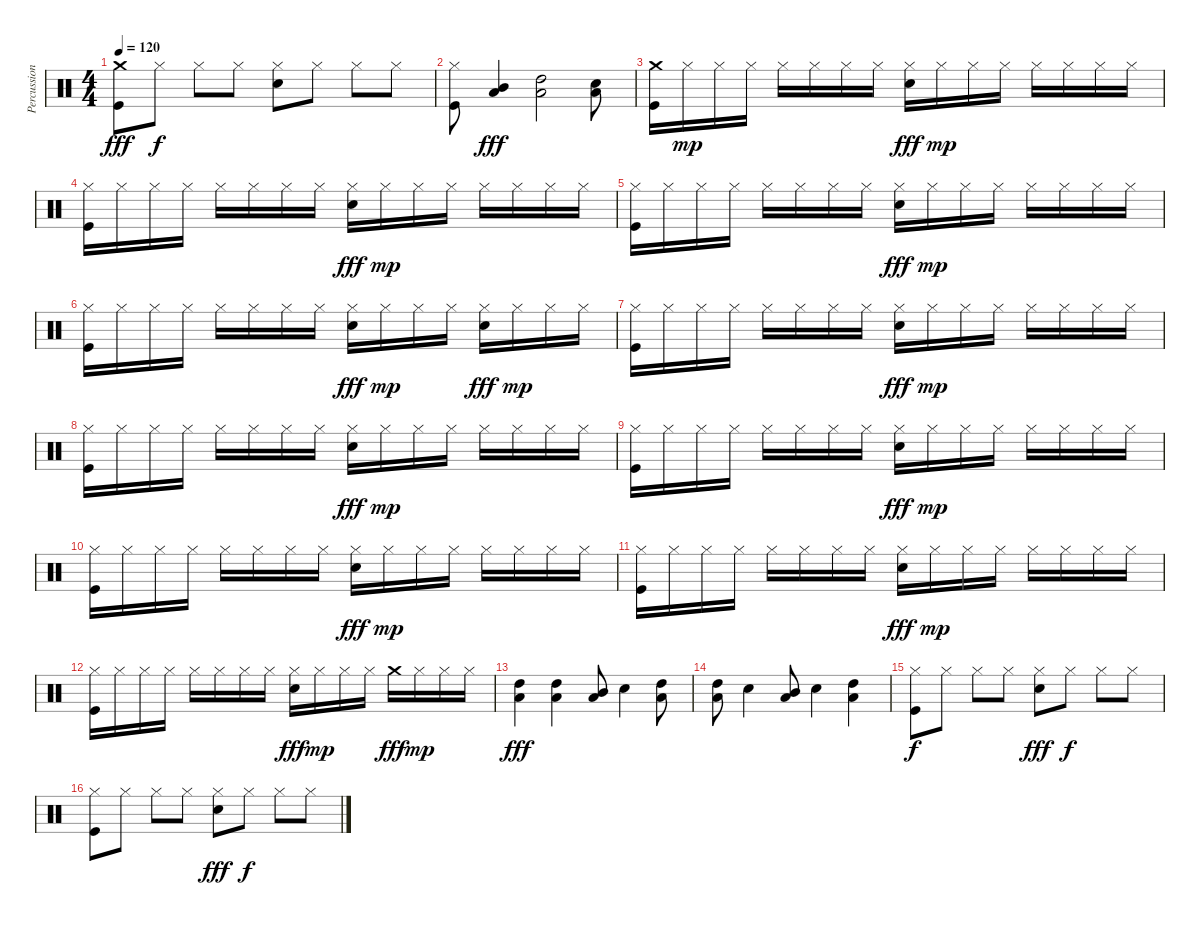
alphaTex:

\track ("Percussions" "Percussion") {instrument percussion}
\staff {score}
\articulation defaults
\ts (4 4)
\tempo 120
\clef neutral
\ks c
("Crash medium (hit)" "Kick (hit)").8{dy fff} "Hi-Hat (closed)".8{dy f} "Hi-Hat (closed)".8 "Hi-Hat (closed)".8 ("Hi-Hat (closed)" "Snare (hit) 2").8 "Hi-Hat (closed)".8 "Hi-Hat (closed)".8 "Hi-Hat (closed)".8 |
("Hi-Hat (closed)" "Kick (hit)").8 ("Mid Tom (hit)" "Low Tom (hit)").4{dy fff} ("High Tom (hit)" "Low Tom (hit)").2 ("Snare (hit) 2" "Low Tom (hit)").8 |
("Crash medium (hit)" "Kick (hit)").16 "Hi-Hat (closed)".16{dy mp} "Hi-Hat (closed)".16 "Hi-Hat (closed)".16 "Hi-Hat (closed)".16 "Hi-Hat (closed)".16 "Hi-Hat (closed)".16 "Hi-Hat (closed)".16 ("Hi-Hat (closed)" "Snare (hit) 2").16{dy fff} "Hi-Hat (closed)".16{dy mp} "Hi-Hat (closed)".16 "Hi-Hat (closed)".16 "Hi-Hat (closed)".16 "Hi-Hat (closed)".16 "Hi-Hat (closed)".16 "Hi-Hat (closed)".16 |
("Hi-Hat (closed)" "Kick (hit)").16 "Hi-Hat (closed)".16 "Hi-Hat (closed)".16 "Hi-Hat (closed)".16 "Hi-Hat (closed)".16 "Hi-Hat (closed)".16 "Hi-Hat (closed)".16 "Hi-Hat (closed)".16 ("Hi-Hat (closed)" "Snare (hit) 2").16{dy fff} "Hi-Hat (closed)".16{dy mp} "Hi-Hat (closed)".16 "Hi-Hat (closed)".16 "Hi-Hat (closed)".16 "Hi-Hat (closed)".16 "Hi-Hat (closed)".16 "Hi-Hat (closed)".16 |
("Hi-Hat (closed)" "Kick (hit)").16 "Hi-Hat (closed)".16 "Hi-Hat (closed)".16 "Hi-Hat (closed)".16 "Hi-Hat (closed)".16 "Hi-Hat (closed)".16 "Hi-Hat (closed)".16 "Hi-Hat (closed)".16 ("Hi-Hat (closed)" "Snare (hit) 2").16{dy fff} "Hi-Hat (closed)".16{dy mp} "Hi-Hat (closed)".16 "Hi-Hat (closed)".16 "Hi-Hat (closed)".16 "Hi-Hat (closed)".16 "Hi-Hat (closed)".16 "Hi-Hat (closed)".16 |
("Hi-Hat (closed)" "Kick (hit)").16 "Hi-Hat (closed)".16 "Hi-Hat (closed)".16 "Hi-Hat (closed)".16 "Hi-Hat (closed)".16 "Hi-Hat (closed)".16 "Hi-Hat (closed)".16 "Hi-Hat (closed)".16 ("Hi-Hat (closed)" "Snare (hit) 2").16{dy fff} "Hi-Hat (closed)".16{dy mp} "Hi-Hat (closed)".16 "Hi-Hat (closed)".16 ("Hi-Hat (closed)" "Snare (hit) 2").16{dy fff} "Hi-Hat (closed)".16{dy mp} "Hi-Hat (closed)".16 "Hi-Hat (closed)".16 |
("Hi-Hat (closed)" "Kick (hit)").16 "Hi-Hat (closed)".16 "Hi-Hat (closed)".16 "Hi-Hat (closed)".16 "Hi-Hat (closed)".16 "Hi-Hat (closed)".16 "Hi-Hat (closed)".16 "Hi-Hat (closed)".16 ("Hi-Hat (closed)" "Snare (hit) 2").16{dy fff} "Hi-Hat (closed)".16{dy mp} "Hi-Hat (closed)".16 "Hi-Hat (closed)".16 "Hi-Hat (closed)".16 "Hi-Hat (closed)".16 "Hi-Hat (closed)".16 "Hi-Hat (closed)".16 |
("Hi-Hat (closed)" "Kick (hit)").16 "Hi-Hat (closed)".16 "Hi-Hat (closed)".16 "Hi-Hat (closed)".16 "Hi-Hat (closed)".16 "Hi-Hat (closed)".16 "Hi-Hat (closed)".16 "Hi-Hat (closed)".16 ("Hi-Hat (closed)" "Snare (hit) 2").16{dy fff} "Hi-Hat (closed)".16{dy mp} "Hi-Hat (closed)".16 "Hi-Hat (closed)".16 "Hi-Hat (closed)".16 "Hi-Hat (closed)".16 "Hi-Hat (closed)".16 "Hi-Hat (closed)".16 |
("Hi-Hat (closed)" "Kick (hit)").16 "Hi-Hat (closed)".16 "Hi-Hat (closed)".16 "Hi-Hat (closed)".16 "Hi-Hat (closed)".16 "Hi-Hat (closed)".16 "Hi-Hat (closed)".16 "Hi-Hat (closed)".16 ("Hi-Hat (closed)" "Snare (hit) 2").16{dy fff} "Hi-Hat (closed)".16{dy mp} "Hi-Hat (closed)".16 "Hi-Hat (closed)".16 "Hi-Hat (closed)".16 "Hi-Hat (closed)".16 "Hi-Hat (closed)".16 "Hi-Hat (closed)".16 |
("Hi-Hat (closed)" "Kick (hit)").16 "Hi-Hat (closed)".16 "Hi-Hat (closed)".16 "Hi-Hat (closed)".16 "Hi-Hat (closed)".16 "Hi-Hat (closed)".16 "Hi-Hat (closed)".16 "Hi-Hat (closed)".16 ("Hi-Hat (closed)" "Snare (hit) 2").16{dy fff} "Hi-Hat (closed)".16{dy mp} "Hi-Hat (closed)".16 "Hi-Hat (closed)".16 "Hi-Hat (closed)".16 "Hi-Hat (closed)".16 "Hi-Hat (closed)".16 "Hi-Hat (closed)".16 |
("Hi-Hat (closed)" "Kick (hit)").16 "Hi-Hat (closed)".16 "Hi-Hat (closed)".16 "Hi-Hat (closed)".16 "Hi-Hat (closed)".16 "Hi-Hat (closed)".16 "Hi-Hat (closed)".16 "Hi-Hat (closed)".16 ("Hi-Hat (closed)" "Snare (hit) 2").16{dy fff} "Hi-Hat (closed)".16{dy mp} "Hi-Hat (closed)".16 "Hi-Hat (closed)".16 "Hi-Hat (closed)".16 "Hi-Hat (closed)".16 "Hi-Hat (closed)".16 "Hi-Hat (closed)".16 |
("Hi-Hat (closed)" "Kick (hit)").16 "Hi-Hat (closed)".16 "Hi-Hat (closed)".16 "Hi-Hat (closed)".16 "Hi-Hat (closed)".16 "Hi-Hat (closed)".16 "Hi-Hat (closed)".16 "Hi-Hat (closed)".16 ("Hi-Hat (closed)" "Snare (hit) 2").16{dy fff} "Hi-Hat (closed)".16{dy mp} "Hi-Hat (closed)".16 "Hi-Hat (closed)".16 "Crash medium (hit)".16{dy fff} "Hi-Hat (closed)".16{dy mp} "Hi-Hat (closed)".16 "Hi-Hat (closed)".16 |
("High Tom (hit)" "Low Tom (hit)").4{dy fff} ("High Tom (hit)" "Low Tom (hit)").4 ("Mid Tom (hit)" "Low Tom (hit)").8 "Snare (hit) 2".4 ("High Tom (hit)" "Low Tom (hit)").8 |
("High Tom (hit)" "Low Tom (hit)").8 "Snare (hit) 2".4 ("Mid Tom (hit)" "Low Tom (hit)").8 "Snare (hit) 2".4 ("High Tom (hit)" "Low Tom (hit)").4 |
("Hi-Hat (closed)" "Kick (hit)").8{dy f} "Hi-Hat (closed)".8 "Hi-Hat (closed)".8 "Hi-Hat (closed)".8 ("Hi-Hat (closed)" "Snare (hit) 2").8{dy fff} "Hi-Hat (closed)".8{dy f} "Hi-Hat (closed)".8 "Hi-Hat (closed)".8 |
("Hi-Hat (closed)" "Kick (hit)").8 "Hi-Hat (closed)".8 "Hi-Hat (closed)".8 "Hi-Hat (closed)".8 ("Hi-Hat (closed)" "Snare (hit) 2").8{dy fff} "Hi-Hat (closed)".8{dy f} "Hi-Hat (closed)".8 "Hi-Hat (closed)".8
